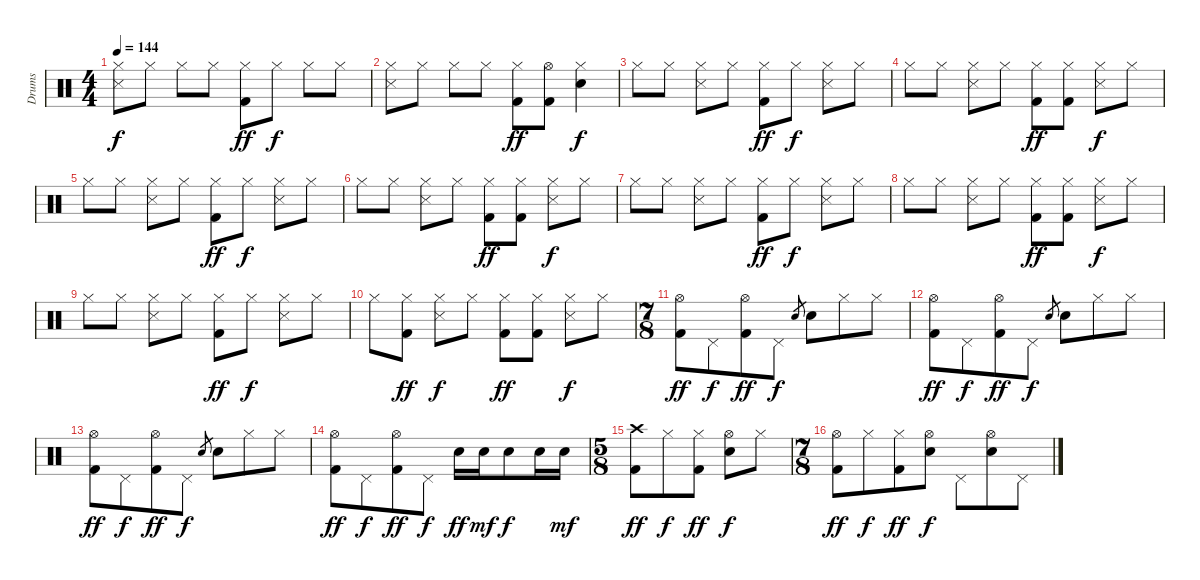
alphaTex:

\track ("Drums" "Drums") {instrument percussion}
\staff {score}
\articulation defaults
\ts (4 4)
\tempo 144
\clef neutral
\ks c
("Hi-Hat (closed)" "Snare (side stick) 3").8{dy f} "Hi-Hat (closed)".8 "Hi-Hat (closed)".8 "Hi-Hat (closed)".8 ("Hi-Hat (closed)" "Kick (hit) 2").8{dy ff} "Hi-Hat (closed)".8{dy f} "Hi-Hat (closed)".8 "Hi-Hat (closed)".8 |
("Hi-Hat (closed)" "Snare (side stick) 3").8 "Hi-Hat (closed)".8 "Hi-Hat (closed)".8 "Hi-Hat (closed)".8 ("Hi-Hat (closed)" "Kick (hit) 2").8{dy ff} ("Hi-Hat (open)" "Kick (hit) 2").8 ("Hi-Hat (closed)" "Snare (hit) 2").4{dy f} |
"Hi-Hat (closed)".8 "Hi-Hat (closed)".8 ("Hi-Hat (closed)" "Snare (side stick) 3").8 "Hi-Hat (closed)".8 ("Hi-Hat (closed)" "Kick (hit) 2").8{dy ff} "Hi-Hat (closed)".8{dy f} ("Hi-Hat (closed)" "Snare (side stick) 3").8 "Hi-Hat (closed)".8 |
"Hi-Hat (closed)".8 "Hi-Hat (closed)".8 ("Hi-Hat (closed)" "Snare (side stick) 3").8 "Hi-Hat (closed)".8 ("Hi-Hat (closed)" "Kick (hit) 2").8{dy ff} ("Hi-Hat (closed)" "Kick (hit) 2").8 ("Hi-Hat (closed)" "Snare (side stick) 3").8{dy f} "Hi-Hat (closed)".8 |
"Hi-Hat (closed)".8 "Hi-Hat (closed)".8 ("Hi-Hat (closed)" "Snare (side stick) 3").8 "Hi-Hat (closed)".8 ("Hi-Hat (closed)" "Kick (hit) 2").8{dy ff} "Hi-Hat (closed)".8{dy f} ("Hi-Hat (closed)" "Snare (side stick) 3").8 "Hi-Hat (closed)".8 |
"Hi-Hat (closed)".8 "Hi-Hat (closed)".8 ("Hi-Hat (closed)" "Snare (side stick) 3").8 "Hi-Hat (closed)".8 ("Hi-Hat (closed)" "Kick (hit) 2").8{dy ff} ("Hi-Hat (closed)" "Kick (hit) 2").8 ("Hi-Hat (closed)" "Snare (side stick) 3").8{dy f} "Hi-Hat (closed)".8 |
"Hi-Hat (closed)".8 "Hi-Hat (closed)".8 ("Hi-Hat (closed)" "Snare (side stick) 3").8 "Hi-Hat (closed)".8 ("Hi-Hat (closed)" "Kick (hit) 2").8{dy ff} "Hi-Hat (closed)".8{dy f} ("Hi-Hat (closed)" "Snare (side stick) 3").8 "Hi-Hat (closed)".8 |
"Hi-Hat (closed)".8 "Hi-Hat (closed)".8 ("Hi-Hat (closed)" "Snare (side stick) 3").8 "Hi-Hat (closed)".8 ("Hi-Hat (closed)" "Kick (hit) 2").8{dy ff} ("Hi-Hat (closed)" "Kick (hit) 2").8 ("Hi-Hat (closed)" "Snare (side stick) 3").8{dy f} "Hi-Hat (closed)".8 |
"Hi-Hat (closed)".8 "Hi-Hat (closed)".8 ("Hi-Hat (closed)" "Snare (side stick) 3").8 "Hi-Hat (closed)".8 ("Hi-Hat (closed)" "Kick (hit) 2").8{dy ff} "Hi-Hat (closed)".8{dy f} ("Hi-Hat (closed)" "Snare (side stick) 3").8 "Hi-Hat (closed)".8 |
"Hi-Hat (closed)".8 ("Hi-Hat (closed)" "Kick (hit) 2").8{dy ff} ("Hi-Hat (closed)" "Snare (side stick) 3").8{dy f} "Hi-Hat (closed)".8 ("Hi-Hat (closed)" "Kick (hit) 2").8{dy ff} ("Hi-Hat (closed)" "Kick (hit) 2").8 ("Hi-Hat (closed)" "Snare (side stick) 3").8{dy f} "Hi-Hat (closed)".8 |
\ts (7 8)
("Hi-Hat (open)" "Kick (hit) 2").8{dy ff} "Pedal Hi-Hat (hit)".8{dy f} ("Hi-Hat (open)" "Kick (hit) 2").8{dy ff} "Pedal Hi-Hat (hit)".8{dy f} "Snare (hit) 2".8{gr} "Snare (hit) 2".8 "Hi-Hat (closed)".8 "Hi-Hat (closed)".8 |
("Hi-Hat (open)" "Kick (hit) 2").8{dy ff} "Pedal Hi-Hat (hit)".8{dy f} ("Hi-Hat (open)" "Kick (hit) 2").8{dy ff} "Pedal Hi-Hat (hit)".8{dy f} "Snare (hit) 2".8{gr} "Snare (hit) 2".8 "Hi-Hat (closed)".8 "Hi-Hat (closed)".8 |
("Hi-Hat (open)" "Kick (hit) 2").8{dy ff} "Pedal Hi-Hat (hit)".8{dy f} ("Hi-Hat (open)" "Kick (hit) 2").8{dy ff} "Pedal Hi-Hat (hit)".8{dy f} "Snare (hit) 2".8{gr} "Snare (hit) 2".8 "Hi-Hat (closed)".8 "Hi-Hat (closed)".8 |
("Hi-Hat (open)" "Kick (hit) 2").8{dy ff} "Pedal Hi-Hat (hit)".8{dy f} ("Hi-Hat (open)" "Kick (hit) 2").8{dy ff} "Pedal Hi-Hat (hit)".8{dy f} "Snare (hit) 2".16{dy ff} "Snare (hit) 2".16{dy mf} "Snare (hit) 2".8{dy f} "Snare (hit) 2".16 "Snare (hit) 2".16{dy mf} |
\ts (5 8)
("Crash high (hit)" "Kick (hit) 2").8{dy ff} "Hi-Hat (closed)".8{dy f} ("Hi-Hat (closed)" "Kick (hit) 2").8{dy ff} ("Hi-Hat (open)" "Snare (hit) 2").8{dy f} "Hi-Hat (closed)".8 |
\ts (7 8)
("Hi-Hat (open)" "Kick (hit) 2").8{dy ff} "Hi-Hat (closed)".8{dy f} ("Hi-Hat (closed)" "Kick (hit) 2").8{dy ff} ("Hi-Hat (open)" "Snare (hit) 2").8{dy f} "Pedal Hi-Hat (hit)".8 ("Hi-Hat (open)" "Snare (hit) 2").8 "Pedal Hi-Hat (hit)".8
